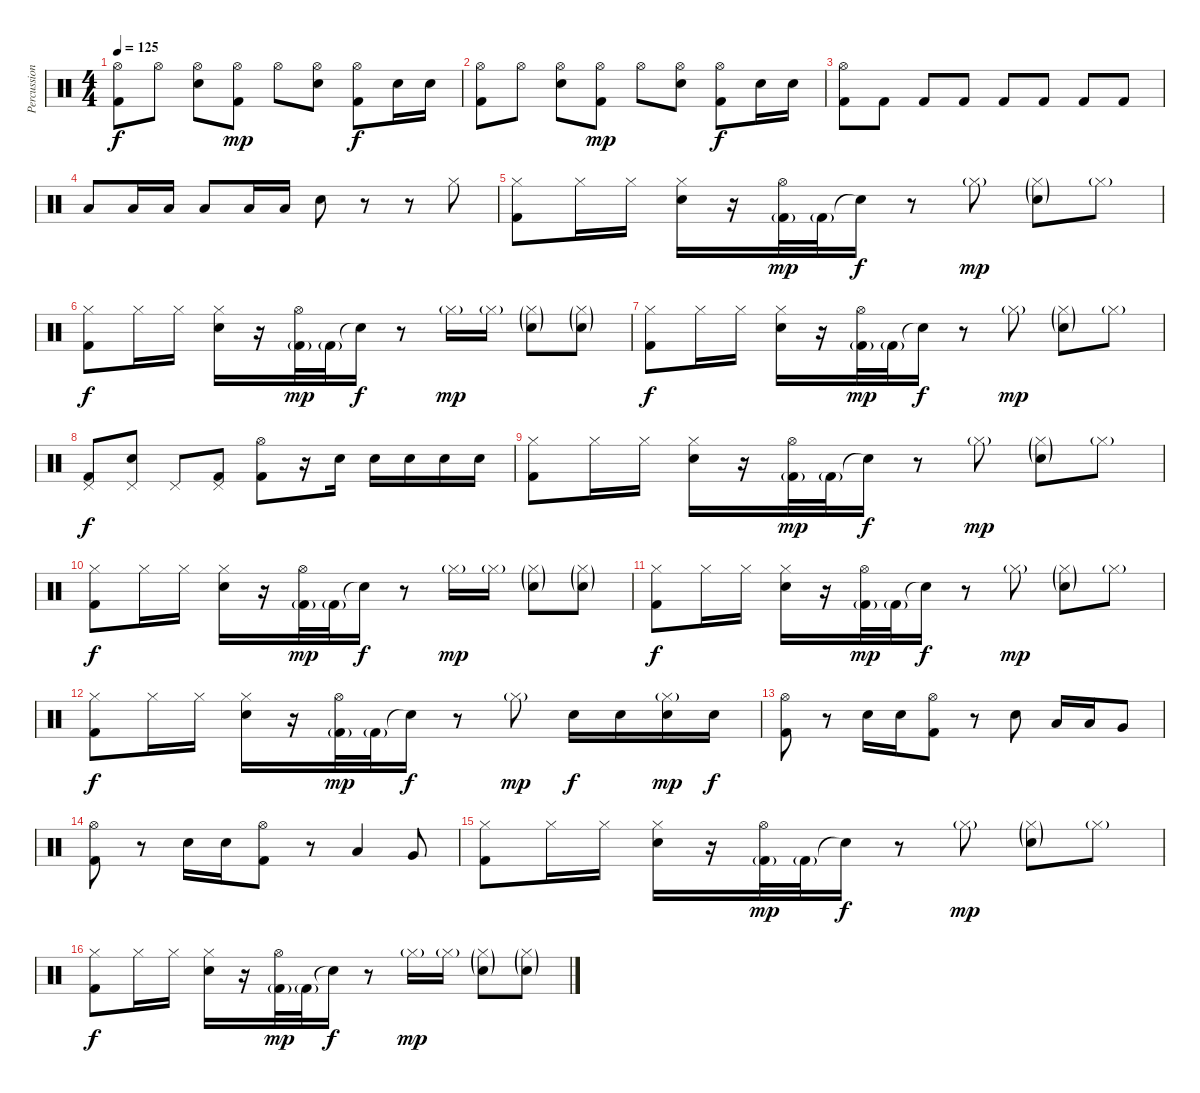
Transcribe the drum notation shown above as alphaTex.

\track ("Percussion" "Percussion") {instrument percussion}
\staff {score}
\articulation defaults
\ts (4 4)
\tempo 125
\clef neutral
\ks c
("Hi-Hat (open)" "Kick (hit) 2").8{dy f} "Hi-Hat (open)".8 ("Hi-Hat (open)" "Snare (hit) 2").8 ("Hi-Hat (open)" "Kick (hit) 2").8{dy mp} "Hi-Hat (open)".8 ("Hi-Hat (open)" "Snare (hit) 2").8 ("Hi-Hat (open)" "Kick (hit) 2").8{dy f} "Snare (hit) 2".16 "Snare (hit) 2".16 |
("Hi-Hat (open)" "Kick (hit) 2").8 "Hi-Hat (open)".8 ("Hi-Hat (open)" "Snare (hit) 2").8 ("Hi-Hat (open)" "Kick (hit) 2").8{dy mp} "Hi-Hat (open)".8 ("Hi-Hat (open)" "Snare (hit) 2").8 ("Hi-Hat (open)" "Kick (hit) 2").8{dy f} "Snare (hit) 2".16 "Snare (hit) 2".16 |
("Hi-Hat (open)" "Kick (hit) 2").8 "Kick (hit) 2".8 "Kick (hit) 2".8 "Kick (hit) 2".8 "Kick (hit) 2".8 "Kick (hit) 2".8 "Kick (hit) 2".8 "Kick (hit) 2".8 |
"Low Floor Tom (hit)".8 "Low Tom (hit)".16 "Low Tom (hit)".16 "Low Floor Tom (hit)".8 "Low Tom (hit)".16 "Low Tom (hit)".16 "Snare (hit) 2".8 r.8 r.8 "Hi-Hat (closed)".8 |
("Hi-Hat (closed)" "Kick (hit) 2").8 "Hi-Hat (closed)".16 "Hi-Hat (closed)".16 ("Hi-Hat (closed)" "Snare (hit) 2").16 r.16 ("Hi-Hat (open)" "Kick (hit) 2"{g}).32{dy mp} "Kick (hit) 2"{g}.32 "Snare (hit)"{t}.16{dy f} r.8 "Hi-Hat (closed)"{g}.8{dy mp} ("Hi-Hat (closed)"{g} "Snare (hit) 2"{g}).8 "Hi-Hat (closed)"{g}.8 |
("Hi-Hat (closed)" "Kick (hit) 2").8{dy f} "Hi-Hat (closed)".16 "Hi-Hat (closed)".16 ("Hi-Hat (closed)" "Snare (hit) 2").16 r.16 ("Hi-Hat (open)" "Kick (hit) 2"{g}).32{dy mp} "Kick (hit) 2"{g}.32 "Snare (hit)"{t}.16{dy f} r.8 "Hi-Hat (closed)"{g}.16{dy mp} "Hi-Hat (closed)"{g}.16 ("Hi-Hat (closed)"{g} "Snare (hit) 2"{g}).8 ("Hi-Hat (closed)"{g} "Snare (hit) 2"{g}).8 |
("Hi-Hat (closed)" "Kick (hit) 2").8{dy f} "Hi-Hat (closed)".16 "Hi-Hat (closed)".16 ("Hi-Hat (closed)" "Snare (hit) 2").16 r.16 ("Hi-Hat (open)" "Kick (hit) 2"{g}).32{dy mp} "Kick (hit) 2"{g}.32 "Snare (hit)"{t}.16{dy f} r.8 "Hi-Hat (closed)"{g}.8{dy mp} ("Hi-Hat (closed)"{g} "Snare (hit) 2"{g}).8 "Hi-Hat (closed)"{g}.8 |
("Pedal Hi-Hat (hit)" "Kick (hit) 2").8{dy f} ("Pedal Hi-Hat (hit)" "Snare (hit) 2").8 "Pedal Hi-Hat (hit)".8 ("Pedal Hi-Hat (hit)" "Kick (hit) 2").8 ("Hi-Hat (open)" "Kick (hit) 2").8 r.16 "Snare (hit) 2".16 "Snare (hit) 2".16 "Snare (hit) 2".16 "Snare (hit) 2".16 "Snare (hit) 2".16 |
("Hi-Hat (closed)" "Kick (hit) 2").8 "Hi-Hat (closed)".16 "Hi-Hat (closed)".16 ("Hi-Hat (closed)" "Snare (hit) 2").16 r.16 ("Hi-Hat (open)" "Kick (hit) 2"{g}).32{dy mp} "Kick (hit) 2"{g}.32 "Snare (hit)"{t}.16{dy f} r.8 "Hi-Hat (closed)"{g}.8{dy mp} ("Hi-Hat (closed)"{g} "Snare (hit) 2"{g}).8 "Hi-Hat (closed)"{g}.8 |
("Hi-Hat (closed)" "Kick (hit) 2").8{dy f} "Hi-Hat (closed)".16 "Hi-Hat (closed)".16 ("Hi-Hat (closed)" "Snare (hit) 2").16 r.16 ("Hi-Hat (open)" "Kick (hit) 2"{g}).32{dy mp} "Kick (hit) 2"{g}.32 "Snare (hit)"{t}.16{dy f} r.8 "Hi-Hat (closed)"{g}.16{dy mp} "Hi-Hat (closed)"{g}.16 ("Hi-Hat (closed)"{g} "Snare (hit) 2"{g}).8 ("Hi-Hat (closed)"{g} "Snare (hit) 2"{g}).8 |
("Hi-Hat (closed)" "Kick (hit) 2").8{dy f} "Hi-Hat (closed)".16 "Hi-Hat (closed)".16 ("Hi-Hat (closed)" "Snare (hit) 2").16 r.16 ("Hi-Hat (open)" "Kick (hit) 2"{g}).32{dy mp} "Kick (hit) 2"{g}.32 "Snare (hit)"{t}.16{dy f} r.8 "Hi-Hat (closed)"{g}.8{dy mp} ("Hi-Hat (closed)"{g} "Snare (hit) 2"{g}).8 "Hi-Hat (closed)"{g}.8 |
("Hi-Hat (closed)" "Kick (hit) 2").8{dy f} "Hi-Hat (closed)".16 "Hi-Hat (closed)".16 ("Hi-Hat (closed)" "Snare (hit) 2").16 r.16 ("Hi-Hat (open)" "Kick (hit) 2"{g}).32{dy mp} "Kick (hit) 2"{g}.32 "Snare (hit)"{t}.16{dy f} r.8 "Hi-Hat (closed)"{g}.8{dy mp} "Snare (hit) 2".16{dy f} "Snare (hit) 2".16 ("Hi-Hat (closed)"{g} "Snare (hit) 2").16{dy mp} "Snare (hit) 2".16{dy f} |
("Hi-Hat (open)" "Kick (hit) 2").8 r.8 "Snare (hit) 2".16 "Snare (hit) 2".16 ("Hi-Hat (open)" "Kick (hit) 2").8 r.8 "Snare (hit) 2".8 "Low Tom (hit)".16 "Low Tom (hit)".16 "Very Low Tom (hit)".8 |
("Hi-Hat (open)" "Kick (hit) 2").8 r.8 "Snare (hit) 2".16 "Snare (hit) 2".16 ("Hi-Hat (open)" "Kick (hit) 2").8 r.8 "Low Tom (hit)".4 "Very Low Tom (hit)".8 |
("Hi-Hat (closed)" "Kick (hit) 2").8 "Hi-Hat (closed)".16 "Hi-Hat (closed)".16 ("Hi-Hat (closed)" "Snare (hit) 2").16 r.16 ("Hi-Hat (open)" "Kick (hit) 2"{g}).32{dy mp} "Kick (hit) 2"{g}.32 "Snare (hit)"{t}.16{dy f} r.8 "Hi-Hat (closed)"{g}.8{dy mp} ("Hi-Hat (closed)"{g} "Snare (hit) 2"{g}).8 "Hi-Hat (closed)"{g}.8 |
("Hi-Hat (closed)" "Kick (hit) 2").8{dy f} "Hi-Hat (closed)".16 "Hi-Hat (closed)".16 ("Hi-Hat (closed)" "Snare (hit) 2").16 r.16 ("Hi-Hat (open)" "Kick (hit) 2"{g}).32{dy mp} "Kick (hit) 2"{g}.32 "Snare (hit)"{t}.16{dy f} r.8 "Hi-Hat (closed)"{g}.16{dy mp} "Hi-Hat (closed)"{g}.16 ("Hi-Hat (closed)"{g} "Snare (hit) 2"{g}).8 ("Hi-Hat (closed)"{g} "Snare (hit) 2"{g}).8
